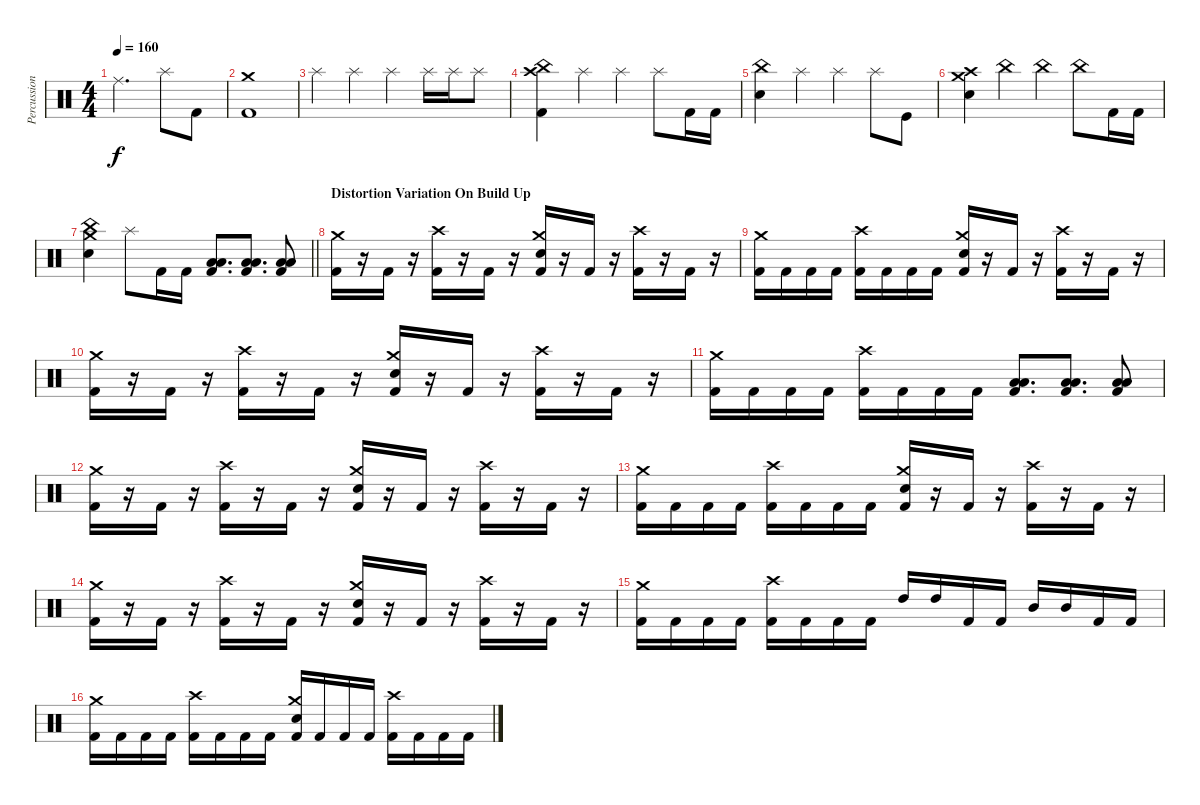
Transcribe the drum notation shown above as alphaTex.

\track ("Percussion" "Percussion") {instrument percussion}
\staff {score}
\articulation defaults
\ts (4 4)
\tempo 160
\clef neutral
\ks c "Ride (middle)".2{d dy f} "Splash (hit)".8 "Kick (hit) 2".8
|
("Crash medium (hit)" "Kick (hit) 2").1 |
"Splash (hit)".4 "Splash (hit)".4 "Splash (hit)".4 "Splash (hit)".16 "Splash (hit)".16 "Splash (hit)".8 |
("Crash high (hit)" "China (hit)" "Kick (hit) 2").4 "Splash (hit)".4 "Splash (hit)".4 "Splash (hit)".8 "Kick (hit) 2".16 "Kick (hit) 2".16 |
("China (hit)" "Electric Snare (hit)").4 "Splash (hit)".4 "Splash (hit)".4 "Splash (hit)".8 "Kick (hit)".8 |
("Crash high (hit)" "Crash medium (hit)" "Electric Snare (hit)").4 "China (hit)".4 "China (hit)".4 "China (hit)".8 "Kick (hit) 2".16 "Kick (hit) 2".16 |
\barLineRight lightlight
("China (hit)" "Crash medium (hit)" "Electric Snare (hit)").4 "Splash (hit)".8 "Kick (hit) 2".16{volume 13} "Kick (hit) 2".16 ("Low Tom (hit)" "Low Floor Tom (hit)" "Kick (hit) 2").8{d} ("Low Tom (hit)" "Low Floor Tom (hit)" "Kick (hit) 2").8{d} ("Low Tom (hit)" "Low Floor Tom (hit)" "Kick (hit) 2").8 |
\section ("" "Distortion Variation On Build Up")
("Crash medium (hit)" "Kick (hit) 2").16 r.16 "Kick (hit) 2".16 r.16 ("Crash high (hit)" "Kick (hit) 2").16 r.16 "Kick (hit) 2".16 r.16 ("Crash medium (hit)" "Electric Snare (hit)" "Kick (hit) 2").16 r.16 "Kick (hit) 2".16 r.16 ("Crash high (hit)" "Kick (hit) 2").16 r.16 "Kick (hit) 2".16 r.16 |
("Crash medium (hit)" "Kick (hit) 2").16 "Kick (hit) 2".16 "Kick (hit) 2".16 "Kick (hit) 2".16 ("Crash high (hit)" "Kick (hit) 2").16 "Kick (hit) 2".16 "Kick (hit) 2".16 "Kick (hit) 2".16 ("Crash medium (hit)" "Electric Snare (hit)" "Kick (hit) 2").16 r.16 "Kick (hit) 2".16 r.16 ("Crash high (hit)" "Kick (hit) 2").16 r.16 "Kick (hit) 2".16 r.16 |
("Crash medium (hit)" "Kick (hit) 2").16 r.16 "Kick (hit) 2".16 r.16 ("Crash high (hit)" "Kick (hit) 2").16 r.16 "Kick (hit) 2".16 r.16 ("Crash medium (hit)" "Electric Snare (hit)" "Kick (hit) 2").16 r.16 "Kick (hit) 2".16 r.16 ("Crash high (hit)" "Kick (hit) 2").16 r.16 "Kick (hit) 2".16 r.16 |
("Crash medium (hit)" "Kick (hit) 2").16 "Kick (hit) 2".16 "Kick (hit) 2".16 "Kick (hit) 2".16 ("Crash high (hit)" "Kick (hit) 2").16 "Kick (hit) 2".16 "Kick (hit) 2".16 "Kick (hit) 2".16 ("Low Tom (hit)" "Low Floor Tom (hit)" "Kick (hit) 2").8{d} ("Low Tom (hit)" "Low Floor Tom (hit)" "Kick (hit) 2").8{d} ("Low Tom (hit)" "Low Floor Tom (hit)" "Kick (hit) 2").8 |
("Crash medium (hit)" "Kick (hit) 2").16 r.16 "Kick (hit) 2".16 r.16 ("Crash high (hit)" "Kick (hit) 2").16 r.16 "Kick (hit) 2".16 r.16 ("Crash medium (hit)" "Electric Snare (hit)" "Kick (hit) 2").16 r.16 "Kick (hit) 2".16 r.16 ("Crash high (hit)" "Kick (hit) 2").16 r.16 "Kick (hit) 2".16 r.16 |
("Crash medium (hit)" "Kick (hit) 2").16 "Kick (hit) 2".16 "Kick (hit) 2".16 "Kick (hit) 2".16 ("Crash high (hit)" "Kick (hit) 2").16 "Kick (hit) 2".16 "Kick (hit) 2".16 "Kick (hit) 2".16 ("Crash medium (hit)" "Electric Snare (hit)" "Kick (hit) 2").16 r.16 "Kick (hit) 2".16 r.16 ("Crash high (hit)" "Kick (hit) 2").16 r.16 "Kick (hit) 2".16 r.16 |
("Crash medium (hit)" "Kick (hit) 2").16 r.16 "Kick (hit) 2".16 r.16 ("Crash high (hit)" "Kick (hit) 2").16 r.16 "Kick (hit) 2".16 r.16 ("Crash medium (hit)" "Electric Snare (hit)" "Kick (hit) 2").16 r.16 "Kick (hit) 2".16 r.16 ("Crash high (hit)" "Kick (hit) 2").16 r.16 "Kick (hit) 2".16 r.16 |
("Crash medium (hit)" "Kick (hit) 2").16 "Kick (hit) 2".16 "Kick (hit) 2".16 "Kick (hit) 2".16 ("Crash high (hit)" "Kick (hit) 2").16 "Kick (hit) 2".16 "Kick (hit) 2".16 "Kick (hit) 2".16 "High Tom (hit)".16 "High Tom (hit)".16 "Kick (hit) 2".16 "Kick (hit) 2".16 "Mid Tom (hit)".16 "Mid Tom (hit)".16 "Kick (hit) 2".16 "Kick (hit) 2".16 |
("Crash medium (hit)" "Kick (hit) 2").16 "Kick (hit) 2".16 "Kick (hit) 2".16 "Kick (hit) 2".16 ("Crash high (hit)" "Kick (hit) 2").16 "Kick (hit) 2".16 "Kick (hit) 2".16 "Kick (hit) 2".16 ("Crash medium (hit)" "Electric Snare (hit)" "Kick (hit) 2").16 "Kick (hit) 2".16 "Kick (hit) 2".16 "Kick (hit) 2".16 ("Crash high (hit)" "Kick (hit) 2").16 "Kick (hit) 2".16 "Kick (hit) 2".16 "Kick (hit) 2".16
